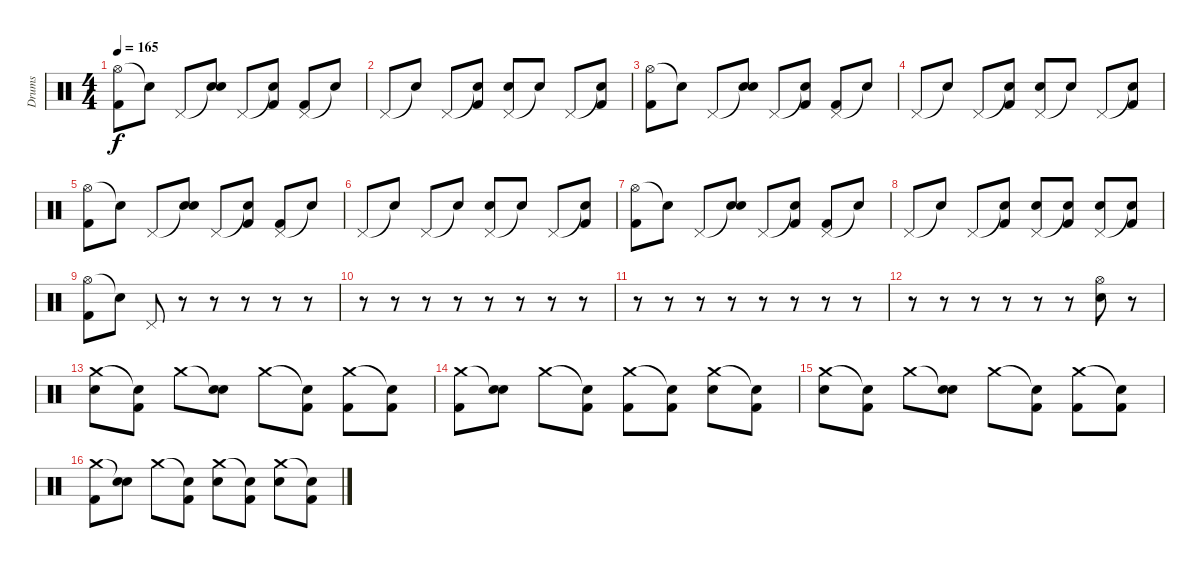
\track ("Drums" "Drums") {instrument percussion}
\staff {score}
\articulation defaults
\ts (4 4)
\tempo 165
\clef neutral
\ks c
("Hi-Hat (open)" "Kick (hit) 2").8{dy f} "Snare (hit)"{t}.8 "Pedal Hi-Hat (hit)".8 ("Snare (hit)"{t} "Electric Snare (hit)").8 "Pedal Hi-Hat (hit)".8 ("Snare (hit)"{t} "Kick (hit) 2").8 ("Pedal Hi-Hat (hit)" "Kick (hit) 2").8 "Snare (hit)"{t}.8 |
"Pedal Hi-Hat (hit)".8 "Snare (hit)"{t}.8 "Pedal Hi-Hat (hit)".8 ("Snare (hit)"{t} "Kick (hit) 2").8 ("Pedal Hi-Hat (hit)" "Electric Snare (hit)").8 "Snare (hit)"{t}.8 "Pedal Hi-Hat (hit)".8 ("Snare (hit)"{t} "Kick (hit) 2").8 |
("Hi-Hat (open)" "Kick (hit) 2").8 "Snare (hit)"{t}.8 "Pedal Hi-Hat (hit)".8 ("Snare (hit)"{t} "Electric Snare (hit)").8 "Pedal Hi-Hat (hit)".8 ("Snare (hit)"{t} "Kick (hit) 2").8 ("Pedal Hi-Hat (hit)" "Kick (hit) 2").8 "Snare (hit)"{t}.8 |
"Pedal Hi-Hat (hit)".8 "Snare (hit)"{t}.8 "Pedal Hi-Hat (hit)".8 ("Snare (hit)"{t} "Kick (hit) 2").8 ("Pedal Hi-Hat (hit)" "Electric Snare (hit)").8 "Snare (hit)"{t}.8 "Pedal Hi-Hat (hit)".8 ("Snare (hit)"{t} "Kick (hit) 2").8 |
("Hi-Hat (open)" "Kick (hit) 2").8 "Snare (hit)"{t}.8 "Pedal Hi-Hat (hit)".8 ("Snare (hit)"{t} "Electric Snare (hit)").8 "Pedal Hi-Hat (hit)".8 ("Snare (hit)"{t} "Kick (hit) 2").8 ("Pedal Hi-Hat (hit)" "Kick (hit) 2").8 "Snare (hit)"{t}.8 |
"Pedal Hi-Hat (hit)".8 "Snare (hit)"{t}.8 "Pedal Hi-Hat (hit)".8 "Snare (hit)"{t}.8 ("Pedal Hi-Hat (hit)" "Electric Snare (hit)").8 "Snare (hit)"{t}.8 "Pedal Hi-Hat (hit)".8 ("Snare (hit)"{t} "Kick (hit) 2").8 |
("Hi-Hat (open)" "Kick (hit) 2").8 "Snare (hit)"{t}.8 "Pedal Hi-Hat (hit)".8 ("Snare (hit)"{t} "Electric Snare (hit)").8 "Pedal Hi-Hat (hit)".8 ("Snare (hit)"{t} "Kick (hit) 2").8 ("Pedal Hi-Hat (hit)" "Kick (hit) 2").8 "Snare (hit)"{t}.8 |
"Pedal Hi-Hat (hit)".8 "Snare (hit)"{t}.8 "Pedal Hi-Hat (hit)".8 ("Snare (hit)"{t} "Kick (hit) 2").8 ("Pedal Hi-Hat (hit)" "Electric Snare (hit)").8 ("Snare (hit)"{t} "Kick (hit) 2").8 ("Pedal Hi-Hat (hit)" "Electric Snare (hit)").8 ("Snare (hit)"{t} "Kick (hit) 2").8 |
("Hi-Hat (open)" "Kick (hit) 2").8 "Snare (hit)"{t}.8 "Pedal Hi-Hat (hit)".8 r.8 r.8 r.8 r.8 r.8 |
r.8 r.8 r.8 r.8 r.8 r.8 r.8 r.8 |
r.8 r.8 r.8 r.8 r.8 r.8 r.8 r.8 |
r.8 r.8 r.8 r.8 r.8 r.8 ("Hi-Hat (open)" "Electric Snare (hit)").8 r.8 |
("Crash medium (hit)" "Electric Snare (hit)").8 ("Snare (hit)"{t} "Kick (hit) 2").8 "Crash medium (hit)".8 ("Snare (hit)"{t} "Electric Snare (hit)").8 "Crash medium (hit)".8 ("Snare (hit)"{t} "Kick (hit) 2").8 ("Crash medium (hit)" "Kick (hit) 2").8 ("Snare (hit)"{t} "Kick (hit) 2").8 |
("Crash medium (hit)" "Kick (hit) 2").8 ("Snare (hit)"{t} "Electric Snare (hit)").8 "Crash medium (hit)".8 ("Snare (hit)"{t} "Kick (hit) 2").8 ("Crash medium (hit)" "Kick (hit) 2").8 ("Snare (hit)"{t} "Kick (hit) 2").8 ("Crash medium (hit)" "Electric Snare (hit)").8 ("Snare (hit)"{t} "Kick (hit) 2").8 |
("Crash medium (hit)" "Electric Snare (hit)").8 ("Snare (hit)"{t} "Kick (hit) 2").8 "Crash medium (hit)".8 ("Snare (hit)"{t} "Electric Snare (hit)").8 "Crash medium (hit)".8 ("Snare (hit)"{t} "Kick (hit) 2").8 ("Crash medium (hit)" "Kick (hit) 2").8 ("Snare (hit)"{t} "Kick (hit) 2").8 |
("Crash medium (hit)" "Kick (hit) 2").8 ("Snare (hit)"{t} "Electric Snare (hit)").8 "Crash medium (hit)".8 ("Snare (hit)"{t} "Kick (hit) 2").8 ("Crash medium (hit)" "Electric Snare (hit)").8 ("Snare (hit)"{t} "Kick (hit) 2").8 ("Crash medium (hit)" "Electric Snare (hit)").8 ("Snare (hit)"{t} "Kick (hit) 2").8
